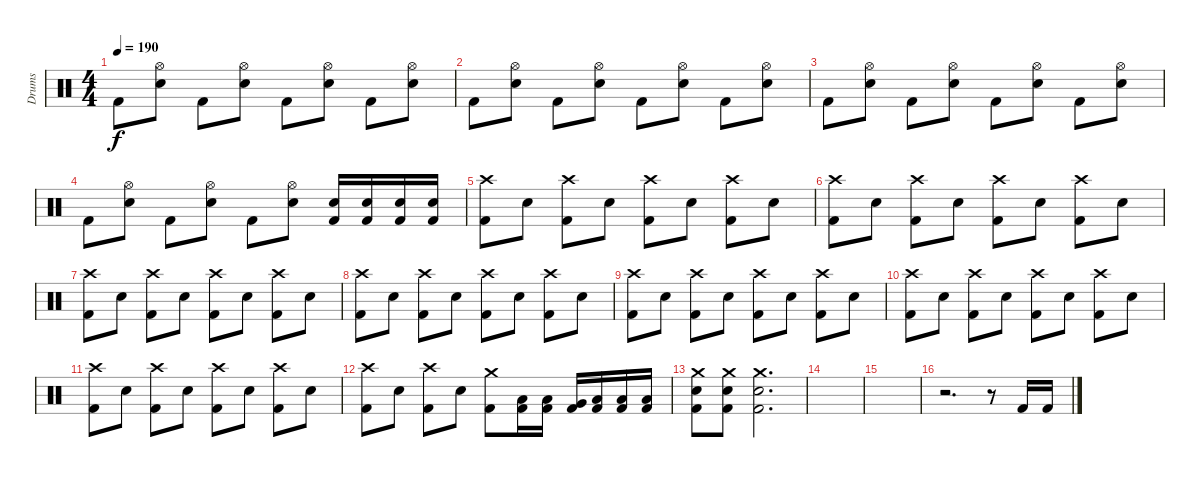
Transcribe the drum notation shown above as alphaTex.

\track ("Drums" "Drums") {instrument percussion}
\staff {score}
\articulation defaults
\ts (4 4)
\tempo 190
\clef neutral
\ks c "Kick (hit) 2".8{dy f}
("Hi-Hat (open)" "Electric Snare (hit)").8 "Kick (hit) 2".8 ("Hi-Hat (open)" "Electric Snare (hit)").8 "Kick (hit) 2".8 ("Hi-Hat (open)" "Electric Snare (hit)").8 "Kick (hit) 2".8 ("Hi-Hat (open)" "Electric Snare (hit)").8 |
"Kick (hit) 2".8 ("Hi-Hat (open)" "Electric Snare (hit)").8 "Kick (hit) 2".8 ("Hi-Hat (open)" "Electric Snare (hit)").8 "Kick (hit) 2".8 ("Hi-Hat (open)" "Electric Snare (hit)").8 "Kick (hit) 2".8 ("Hi-Hat (open)" "Electric Snare (hit)").8 |
"Kick (hit) 2".8 ("Hi-Hat (open)" "Electric Snare (hit)").8 "Kick (hit) 2".8 ("Hi-Hat (open)" "Electric Snare (hit)").8 "Kick (hit) 2".8 ("Hi-Hat (open)" "Electric Snare (hit)").8 "Kick (hit) 2".8 ("Hi-Hat (open)" "Electric Snare (hit)").8 |
"Kick (hit) 2".8 ("Hi-Hat (open)" "Electric Snare (hit)").8 "Kick (hit) 2".8 ("Hi-Hat (open)" "Electric Snare (hit)").8 "Kick (hit) 2".8 ("Hi-Hat (open)" "Electric Snare (hit)").8 ("Electric Snare (hit)" "Kick (hit) 2").16 ("Electric Snare (hit)" "Kick (hit) 2").16 ("Electric Snare (hit)" "Kick (hit) 2").16 ("Electric Snare (hit)" "Kick (hit) 2").16 |
("Crash high (hit)" "Kick (hit) 2").8 "Electric Snare (hit)".8 ("Crash high (hit)" "Kick (hit) 2").8 "Electric Snare (hit)".8 ("Crash high (hit)" "Kick (hit) 2").8 "Electric Snare (hit)".8 ("Crash high (hit)" "Kick (hit) 2").8 "Electric Snare (hit)".8 |
("Crash high (hit)" "Kick (hit) 2").8 "Electric Snare (hit)".8 ("Crash high (hit)" "Kick (hit) 2").8 "Electric Snare (hit)".8 ("Crash high (hit)" "Kick (hit) 2").8 "Electric Snare (hit)".8 ("Crash high (hit)" "Kick (hit) 2").8 "Electric Snare (hit)".8 |
("Crash high (hit)" "Kick (hit) 2").8 "Electric Snare (hit)".8 ("Crash high (hit)" "Kick (hit) 2").8 "Electric Snare (hit)".8 ("Crash high (hit)" "Kick (hit) 2").8 "Electric Snare (hit)".8 ("Crash high (hit)" "Kick (hit) 2").8 "Electric Snare (hit)".8 |
("Crash high (hit)" "Kick (hit) 2").8 "Electric Snare (hit)".8 ("Crash high (hit)" "Kick (hit) 2").8 "Electric Snare (hit)".8 ("Crash high (hit)" "Kick (hit) 2").8 "Electric Snare (hit)".8 ("Crash high (hit)" "Kick (hit) 2").8 "Electric Snare (hit)".8 |
("Crash high (hit)" "Kick (hit) 2").8 "Electric Snare (hit)".8 ("Crash high (hit)" "Kick (hit) 2").8 "Electric Snare (hit)".8 ("Crash high (hit)" "Kick (hit) 2").8 "Electric Snare (hit)".8 ("Crash high (hit)" "Kick (hit) 2").8 "Electric Snare (hit)".8 |
("Crash high (hit)" "Kick (hit) 2").8 "Electric Snare (hit)".8 ("Crash high (hit)" "Kick (hit) 2").8 "Electric Snare (hit)".8 ("Crash high (hit)" "Kick (hit) 2").8 "Electric Snare (hit)".8 ("Crash high (hit)" "Kick (hit) 2").8 "Electric Snare (hit)".8 |
("Crash high (hit)" "Kick (hit) 2").8 "Electric Snare (hit)".8 ("Crash high (hit)" "Kick (hit) 2").8 "Electric Snare (hit)".8 ("Crash high (hit)" "Kick (hit) 2").8 "Electric Snare (hit)".8 ("Crash high (hit)" "Kick (hit) 2").8 "Electric Snare (hit)".8 |
("Crash high (hit)" "Kick (hit) 2").8 "Electric Snare (hit)".8 ("Crash high (hit)" "Kick (hit) 2").8 "Electric Snare (hit)".8 ("Crash medium (hit)" "Kick (hit) 2").8 ("Low Floor Tom (hit)" "Kick (hit) 2").16 ("Low Floor Tom (hit)" "Kick (hit) 2").16 ("Very Low Tom (hit)" "Kick (hit) 2").16 ("Low Floor Tom (hit)" "Kick (hit) 2").16 ("Low Floor Tom (hit)" "Kick (hit) 2").16 ("Low Floor Tom (hit)" "Kick (hit) 2").16 |
("Crash medium (hit)" "Electric Snare (hit)" "Kick (hit) 2").8 ("Crash medium (hit)" "Electric Snare (hit)" "Kick (hit) 2").8 ("Crash medium (hit)" "Electric Snare (hit)" "Kick (hit) 2").2{d} |
|
|
r.2{d} r.8 "Kick (hit) 2".16 "Kick (hit) 2".16
